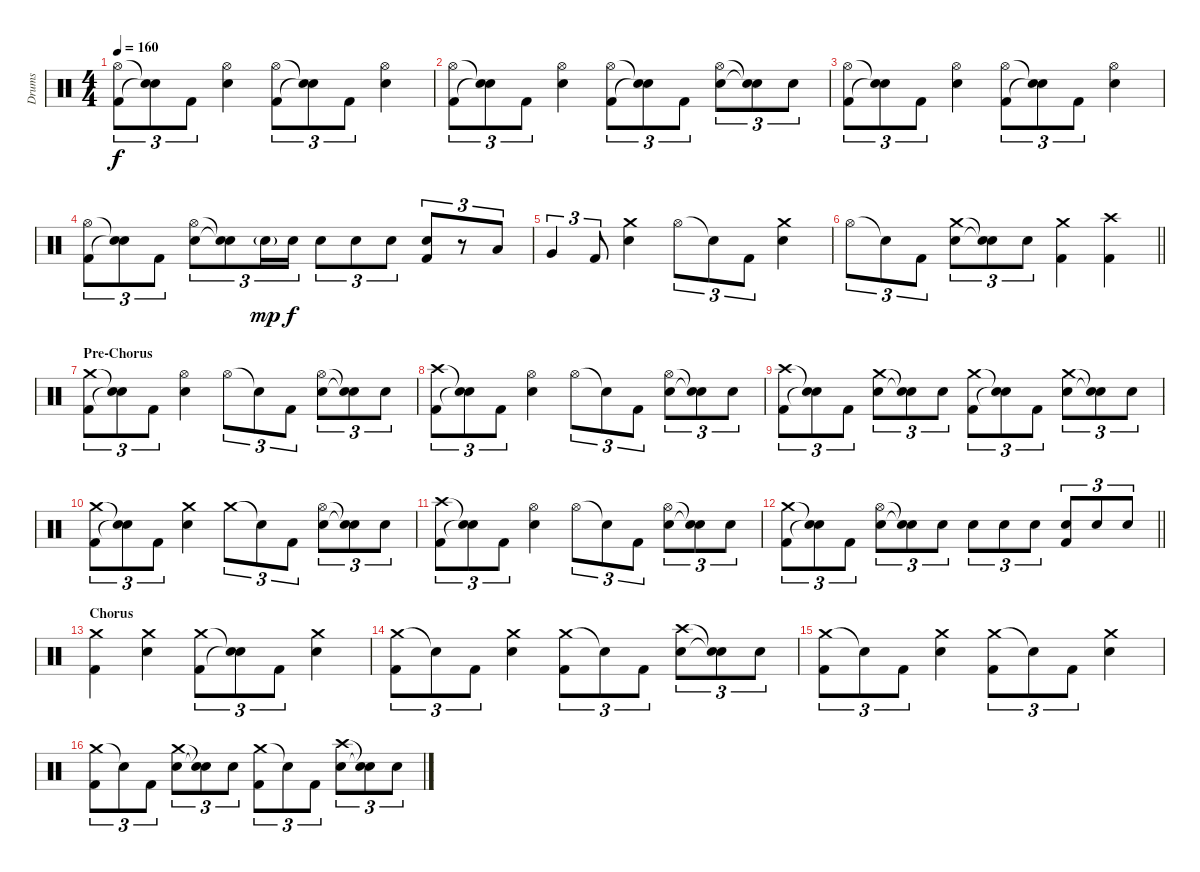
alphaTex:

\track ("Drums" "Drums") {instrument percussion}
\staff {score}
\articulation defaults
\ts (4 4)
\tempo 160
\clef neutral
\ks c
("Hi-Hat (open)" "Kick (hit) 2").8{tu (3 2) dy f} ("Snare (hit)"{t} "Snare (hit)"{t}).8{tu (3 2)} "Kick (hit) 2".8{tu (3 2)} ("Hi-Hat (open)" "Electric Snare (hit)").4 ("Hi-Hat (open)" "Kick (hit) 2").8{tu (3 2)} ("Snare (hit)"{t} "Snare (hit)"{t}).8{tu (3 2)} "Kick (hit) 2".8{tu (3 2)} ("Hi-Hat (open)" "Electric Snare (hit)").4 |
("Hi-Hat (open)" "Kick (hit) 2").8{tu (3 2)} ("Snare (hit)"{t} "Snare (hit)"{t}).8{tu (3 2)} "Kick (hit) 2".8{tu (3 2)} ("Hi-Hat (open)" "Electric Snare (hit)").4 ("Hi-Hat (open)" "Kick (hit) 2").8{tu (3 2)} ("Snare (hit)"{t} "Snare (hit)"{t}).8{tu (3 2)} "Kick (hit) 2".8{tu (3 2)} ("Hi-Hat (open)" "Electric Snare (hit)").8{tu (3 2)} ("Snare (hit)"{t} "Snare (hit)"{t}).8{tu (3 2)} "Electric Snare (hit)".8{tu (3 2)} |
("Hi-Hat (open)" "Kick (hit) 2").8{tu (3 2)} ("Snare (hit)"{t} "Snare (hit)"{t}).8{tu (3 2)} "Kick (hit) 2".8{tu (3 2)} ("Hi-Hat (open)" "Electric Snare (hit)").4 ("Hi-Hat (open)" "Kick (hit) 2").8{tu (3 2)} ("Snare (hit)"{t} "Snare (hit)"{t}).8{tu (3 2)} "Kick (hit) 2".8{tu (3 2)} ("Hi-Hat (open)" "Electric Snare (hit)").4 |
("Hi-Hat (open)" "Kick (hit) 2").8{tu (3 2)} ("Snare (hit)"{t} "Snare (hit)"{t}).8{tu (3 2)} "Kick (hit) 2".8{tu (3 2)} ("Hi-Hat (open)" "Electric Snare (hit)").8{tu (3 2)} ("Snare (hit)"{t} "Snare (hit)"{t}).8{tu (3 2)} "Electric Snare (hit)"{g}.16{tu (3 2) dy mp} "Electric Snare (hit)".16{tu (3 2) dy f} "Electric Snare (hit)".8{tu (3 2)} "Electric Snare (hit)".8{tu (3 2)} "Electric Snare (hit)".8{tu (3 2)} ("Electric Snare (hit)" "Kick (hit) 2").8{tu (3 2)} r.8{tu (3 2)} "Low Tom (hit)".8{tu (3 2)} |
"Very Low Tom (hit)".4{tu (3 2)} "Kick (hit) 2".8{tu (3 2)} ("Crash medium (hit)" "Electric Snare (hit)").4 "Hi-Hat (open)".8{tu (3 2)} "Snare (hit)"{t}.8{tu (3 2)} "Kick (hit) 2".8{tu (3 2)} ("Crash medium (hit)" "Electric Snare (hit)").4 |
\barLineRight lightlight "Hi-Hat (open)".8{tu (3 2)} "Snare (hit)"{t}.8{tu (3 2)} "Kick (hit) 2".8{tu (3 2)}
("Crash medium (hit)" "Electric Snare (hit)").8{tu (3 2)} ("Snare (hit)"{t} "Snare (hit)"{t}).8{tu (3 2)} "Electric Snare (hit)".8{tu (3 2)} ("Crash medium (hit)" "Kick (hit) 2").4 ("Crash high (hit)" "Kick (hit) 2").4 |
\section ("" "Pre-Chorus")
("Crash medium (hit)" "Kick (hit) 2").8{tu (3 2)} ("Snare (hit)"{t} "Snare (hit)"{t}).8{tu (3 2)} "Kick (hit) 2".8{tu (3 2)} ("Hi-Hat (open)" "Electric Snare (hit)").4 "Hi-Hat (open)".8{tu (3 2)} "Snare (hit)"{t}.8{tu (3 2)} "Kick (hit) 2".8{tu (3 2)} ("Hi-Hat (open)" "Electric Snare (hit)").8{tu (3 2)} ("Snare (hit)"{t} "Snare (hit)"{t}).8{tu (3 2)} "Electric Snare (hit)".8{tu (3 2)} |
("Crash high (hit)" "Kick (hit) 2").8{tu (3 2)} ("Snare (hit)"{t} "Snare (hit)"{t}).8{tu (3 2)} "Kick (hit) 2".8{tu (3 2)} ("Hi-Hat (open)" "Electric Snare (hit)").4 "Hi-Hat (open)".8{tu (3 2)} "Snare (hit)"{t}.8{tu (3 2)} "Kick (hit) 2".8{tu (3 2)} ("Hi-Hat (open)" "Electric Snare (hit)").8{tu (3 2)} ("Snare (hit)"{t} "Snare (hit)"{t}).8{tu (3 2)} "Electric Snare (hit)".8{tu (3 2)} |
("Crash high (hit)" "Kick (hit) 2").8{tu (3 2)} ("Snare (hit)"{t} "Snare (hit)"{t}).8{tu (3 2)} "Kick (hit) 2".8{tu (3 2)} ("Crash medium (hit)" "Electric Snare (hit)").8{tu (3 2)} ("Snare (hit)"{t} "Snare (hit)"{t}).8{tu (3 2)} "Electric Snare (hit)".8{tu (3 2)} ("Crash medium (hit)" "Kick (hit) 2").8{tu (3 2)} ("Snare (hit)"{t} "Snare (hit)"{t}).8{tu (3 2)} "Kick (hit) 2".8{tu (3 2)} ("Crash medium (hit)" "Electric Snare (hit)").8{tu (3 2)} ("Snare (hit)"{t} "Snare (hit)"{t}).8{tu (3 2)} "Electric Snare (hit)".8{tu (3 2)} |
("Crash medium (hit)" "Kick (hit) 2").8{tu (3 2)} ("Snare (hit)"{t} "Snare (hit)"{t}).8{tu (3 2)} "Kick (hit) 2".8{tu (3 2)} ("Crash medium (hit)" "Electric Snare (hit)").4 "Crash medium (hit)".8{tu (3 2)} "Snare (hit)"{t}.8{tu (3 2)} "Kick (hit) 2".8{tu (3 2)} ("Hi-Hat (open)" "Electric Snare (hit)").8{tu (3 2)} ("Snare (hit)"{t} "Snare (hit)"{t}).8{tu (3 2)} "Electric Snare (hit)".8{tu (3 2)} |
("Crash high (hit)" "Kick (hit) 2").8{tu (3 2)} ("Snare (hit)"{t} "Snare (hit)"{t}).8{tu (3 2)} "Kick (hit) 2".8{tu (3 2)} ("Hi-Hat (open)" "Electric Snare (hit)").4 "Hi-Hat (open)".8{tu (3 2)} "Snare (hit)"{t}.8{tu (3 2)} "Kick (hit) 2".8{tu (3 2)} ("Hi-Hat (open)" "Electric Snare (hit)").8{tu (3 2)} ("Snare (hit)"{t} "Snare (hit)"{t}).8{tu (3 2)} "Electric Snare (hit)".8{tu (3 2)} |
\barLineRight lightlight
("Crash medium (hit)" "Kick (hit) 2").8{tu (3 2)} ("Snare (hit)"{t} "Snare (hit)"{t}).8{tu (3 2)} "Kick (hit) 2".8{tu (3 2)} ("Hi-Hat (open)" "Electric Snare (hit)").8{tu (3 2)} ("Snare (hit)"{t} "Snare (hit)"{t}).8{tu (3 2)} "Electric Snare (hit)".8{tu (3 2)} "Electric Snare (hit)".8{tu (3 2)} "Electric Snare (hit)".8{tu (3 2)} "Electric Snare (hit)".8{tu (3 2)} ("Electric Snare (hit)" "Kick (hit) 2").8{tu (3 2)} "Electric Snare (hit)".8{tu (3 2)} "Electric Snare (hit)".8{tu (3 2)} |
\section ("" "Chorus")
("Crash medium (hit)" "Kick (hit) 2").4 ("Crash medium (hit)" "Electric Snare (hit)").4 ("Crash medium (hit)" "Kick (hit) 2").8{tu (3 2)} ("Snare (hit)"{t} "Snare (hit)"{t}).8{tu (3 2)} "Kick (hit) 2".8{tu (3 2)} ("Crash medium (hit)" "Electric Snare (hit)").4 |
("Crash medium (hit)" "Kick (hit) 2").8{tu (3 2)} "Snare (hit)"{t}.8{tu (3 2)} "Kick (hit) 2".8{tu (3 2)} ("Crash medium (hit)" "Electric Snare (hit)").4 ("Crash medium (hit)" "Kick (hit) 2").8{tu (3 2)} "Snare (hit)"{t}.8{tu (3 2)} "Kick (hit) 2".8{tu (3 2)} ("Crash high (hit)" "Electric Snare (hit)").8{tu (3 2)} ("Snare (hit)"{t} "Snare (hit)"{t}).8{tu (3 2)} "Electric Snare (hit)".8{tu (3 2)} |
("Crash medium (hit)" "Kick (hit) 2").8{tu (3 2)} "Snare (hit)"{t}.8{tu (3 2)} "Kick (hit) 2".8{tu (3 2)} ("Crash medium (hit)" "Electric Snare (hit)").4 ("Crash medium (hit)" "Kick (hit) 2").8{tu (3 2)} "Snare (hit)"{t}.8{tu (3 2)} "Kick (hit) 2".8{tu (3 2)} ("Crash medium (hit)" "Electric Snare (hit)").4 |
("Crash medium (hit)" "Kick (hit) 2").8{tu (3 2)} "Snare (hit)"{t}.8{tu (3 2)} "Kick (hit) 2".8{tu (3 2)} ("Crash medium (hit)" "Electric Snare (hit)").8{tu (3 2)} ("Snare (hit)"{t} "Snare (hit)"{t}).8{tu (3 2)} "Electric Snare (hit)".8{tu (3 2)} ("Crash medium (hit)" "Kick (hit) 2").8{tu (3 2)} "Snare (hit)"{t}.8{tu (3 2)} "Kick (hit) 2".8{tu (3 2)} ("Crash high (hit)" "Electric Snare (hit)").8{tu (3 2)} ("Snare (hit)"{t} "Snare (hit)"{t}).8{tu (3 2)} "Electric Snare (hit)".8{tu (3 2)}
